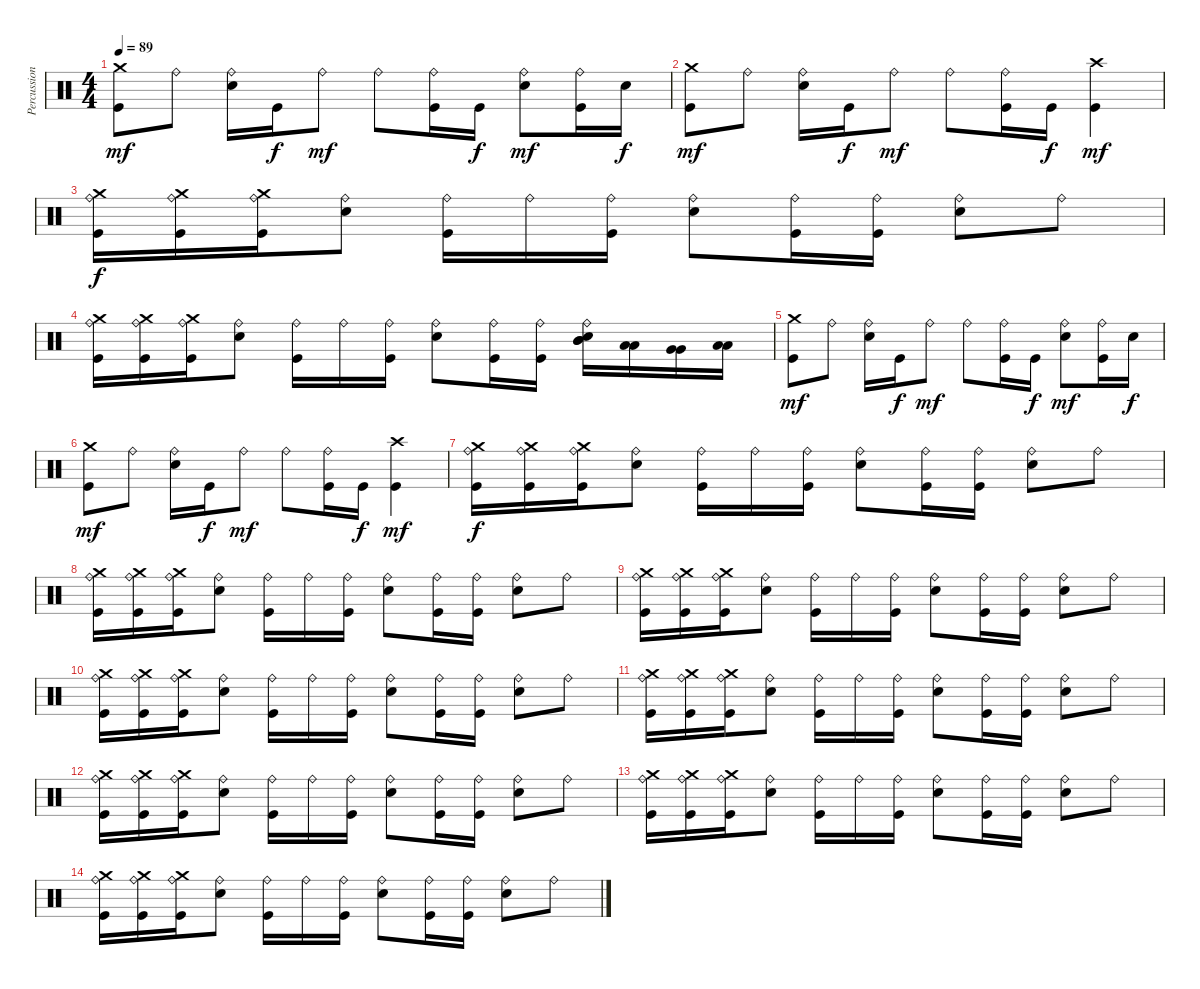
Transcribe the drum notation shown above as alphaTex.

\track ("Percussion" "Percussion") {instrument percussion}
\staff {score}
\articulation defaults
\ts (4 4)
\tempo 89
\clef neutral
\ks c
("Crash medium (hit)" "Kick (hit)").8{dy mf} "Ride (bell)".8 ("Ride (bell)" "Snare (hit) 2").16 "Kick (hit)".16{dy f} "Ride (bell)".8{dy mf} "Ride (bell)".8 ("Ride (bell)" "Kick (hit)").16 "Kick (hit)".16{dy f} ("Ride (bell)" "Snare (hit) 2").8{dy mf} ("Ride (bell)" "Kick (hit)").16 "Snare (hit) 2".16{dy f} |
("Crash medium (hit)" "Kick (hit)").8{dy mf} "Ride (bell)".8 ("Ride (bell)" "Snare (hit) 2").16 "Kick (hit)".16{dy f} "Ride (bell)".8{dy mf} "Ride (bell)".8 ("Ride (bell)" "Kick (hit)").16 "Kick (hit)".16{dy f} ("Crash high (hit)" "Kick (hit)").4{dy mf} |
("Ride (bell)" "Crash medium (hit)" "Kick (hit)").16{dy f} ("Ride (bell)" "Crash medium (hit)" "Kick (hit)").16 ("Ride (bell)" "Crash medium (hit)" "Kick (hit)").16 ("Ride (bell)" "Snare (hit) 2").8 ("Ride (bell)" "Kick (hit)").16 "Ride (bell)".16 ("Ride (bell)" "Kick (hit)").16 ("Ride (bell)" "Snare (hit) 2").8 ("Ride (bell)" "Kick (hit)").16 ("Ride (bell)" "Kick (hit)").16 ("Ride (bell)" "Snare (hit) 2").8 "Ride (bell)".8 |
("Ride (bell)" "Crash medium (hit)" "Kick (hit)").16 ("Ride (bell)" "Crash medium (hit)" "Kick (hit)").16 ("Ride (bell)" "Crash medium (hit)" "Kick (hit)").16 ("Ride (bell)" "Snare (hit) 2").8 ("Ride (bell)" "Kick (hit)").16 "Ride (bell)".16 ("Ride (bell)" "Kick (hit)").16 ("Ride (bell)" "Snare (hit) 2").8 ("Ride (bell)" "Kick (hit)").16 ("Ride (bell)" "Kick (hit)").16 ("Ride (bell)" "Snare (hit) 2" "Mid Tom (hit)" "Mid Tom (hit)").16 ("Low Tom (hit)" "Low Tom (hit)").16 ("Very Low Tom (hit)" "Very Low Tom (hit)").16 ("Low Floor Tom (hit)" "Low Floor Tom (hit)").16 |
("Crash medium (hit)" "Kick (hit)").8{dy mf} "Ride (bell)".8 ("Ride (bell)" "Snare (hit) 2").16 "Kick (hit)".16{dy f} "Ride (bell)".8{dy mf} "Ride (bell)".8 ("Ride (bell)" "Kick (hit)").16 "Kick (hit)".16{dy f} ("Ride (bell)" "Snare (hit) 2").8{dy mf} ("Ride (bell)" "Kick (hit)").16 "Snare (hit) 2".16{dy f} |
("Crash medium (hit)" "Kick (hit)").8{dy mf} "Ride (bell)".8 ("Ride (bell)" "Snare (hit) 2").16 "Kick (hit)".16{dy f} "Ride (bell)".8{dy mf} "Ride (bell)".8 ("Ride (bell)" "Kick (hit)").16 "Kick (hit)".16{dy f} ("Crash high (hit)" "Kick (hit)").4{dy mf} |
("Ride (bell)" "Crash medium (hit)" "Kick (hit)").16{dy f} ("Ride (bell)" "Crash medium (hit)" "Kick (hit)").16 ("Ride (bell)" "Crash medium (hit)" "Kick (hit)").16 ("Ride (bell)" "Snare (hit) 2").8 ("Ride (bell)" "Kick (hit)").16 "Ride (bell)".16 ("Ride (bell)" "Kick (hit)").16 ("Ride (bell)" "Snare (hit) 2").8 ("Ride (bell)" "Kick (hit)").16 ("Ride (bell)" "Kick (hit)").16 ("Ride (bell)" "Snare (hit) 2").8 "Ride (bell)".8 |
("Ride (bell)" "Crash medium (hit)" "Kick (hit)").16 ("Ride (bell)" "Crash medium (hit)" "Kick (hit)").16 ("Ride (bell)" "Crash medium (hit)" "Kick (hit)").16 ("Ride (bell)" "Snare (hit) 2").8 ("Ride (bell)" "Kick (hit)").16 "Ride (bell)".16 ("Ride (bell)" "Kick (hit)").16 ("Ride (bell)" "Snare (hit) 2").8 ("Ride (bell)" "Kick (hit)").16 ("Ride (bell)" "Kick (hit)").16 ("Ride (bell)" "Snare (hit) 2").8 "Ride (bell)".8 |
("Ride (bell)" "Crash medium (hit)" "Kick (hit)").16 ("Ride (bell)" "Crash medium (hit)" "Kick (hit)").16 ("Ride (bell)" "Crash medium (hit)" "Kick (hit)").16 ("Ride (bell)" "Snare (hit) 2").8 ("Ride (bell)" "Kick (hit)").16 "Ride (bell)".16 ("Ride (bell)" "Kick (hit)").16 ("Ride (bell)" "Snare (hit) 2").8 ("Ride (bell)" "Kick (hit)").16 ("Ride (bell)" "Kick (hit)").16 ("Ride (bell)" "Snare (hit) 2").8 "Ride (bell)".8 |
("Ride (bell)" "Crash medium (hit)" "Kick (hit)").16 ("Ride (bell)" "Crash medium (hit)" "Kick (hit)").16 ("Ride (bell)" "Crash medium (hit)" "Kick (hit)").16 ("Ride (bell)" "Snare (hit) 2").8 ("Ride (bell)" "Kick (hit)").16 "Ride (bell)".16 ("Ride (bell)" "Kick (hit)").16 ("Ride (bell)" "Snare (hit) 2").8 ("Ride (bell)" "Kick (hit)").16 ("Ride (bell)" "Kick (hit)").16 ("Ride (bell)" "Snare (hit) 2").8 "Ride (bell)".8 |
("Ride (bell)" "Crash medium (hit)" "Kick (hit)").16 ("Ride (bell)" "Crash medium (hit)" "Kick (hit)").16 ("Ride (bell)" "Crash medium (hit)" "Kick (hit)").16 ("Ride (bell)" "Snare (hit) 2").8 ("Ride (bell)" "Kick (hit)").16 "Ride (bell)".16 ("Ride (bell)" "Kick (hit)").16 ("Ride (bell)" "Snare (hit) 2").8 ("Ride (bell)" "Kick (hit)").16 ("Ride (bell)" "Kick (hit)").16 ("Ride (bell)" "Snare (hit) 2").8 "Ride (bell)".8 |
("Ride (bell)" "Crash medium (hit)" "Kick (hit)").16 ("Ride (bell)" "Crash medium (hit)" "Kick (hit)").16 ("Ride (bell)" "Crash medium (hit)" "Kick (hit)").16 ("Ride (bell)" "Snare (hit) 2").8 ("Ride (bell)" "Kick (hit)").16 "Ride (bell)".16 ("Ride (bell)" "Kick (hit)").16 ("Ride (bell)" "Snare (hit) 2").8 ("Ride (bell)" "Kick (hit)").16 ("Ride (bell)" "Kick (hit)").16 ("Ride (bell)" "Snare (hit) 2").8 "Ride (bell)".8 |
("Ride (bell)" "Crash medium (hit)" "Kick (hit)").16 ("Ride (bell)" "Crash medium (hit)" "Kick (hit)").16 ("Ride (bell)" "Crash medium (hit)" "Kick (hit)").16 ("Ride (bell)" "Snare (hit) 2").8 ("Ride (bell)" "Kick (hit)").16 "Ride (bell)".16 ("Ride (bell)" "Kick (hit)").16 ("Ride (bell)" "Snare (hit) 2").8 ("Ride (bell)" "Kick (hit)").16 ("Ride (bell)" "Kick (hit)").16 ("Ride (bell)" "Snare (hit) 2").8 "Ride (bell)".8 |
("Ride (bell)" "Crash medium (hit)" "Kick (hit)").16 ("Ride (bell)" "Crash medium (hit)" "Kick (hit)").16 ("Ride (bell)" "Crash medium (hit)" "Kick (hit)").16 ("Ride (bell)" "Snare (hit) 2").8 ("Ride (bell)" "Kick (hit)").16 "Ride (bell)".16 ("Ride (bell)" "Kick (hit)").16 ("Ride (bell)" "Snare (hit) 2").8 ("Ride (bell)" "Kick (hit)").16 ("Ride (bell)" "Kick (hit)").16 ("Ride (bell)" "Snare (hit) 2").8 "Ride (bell)".8
